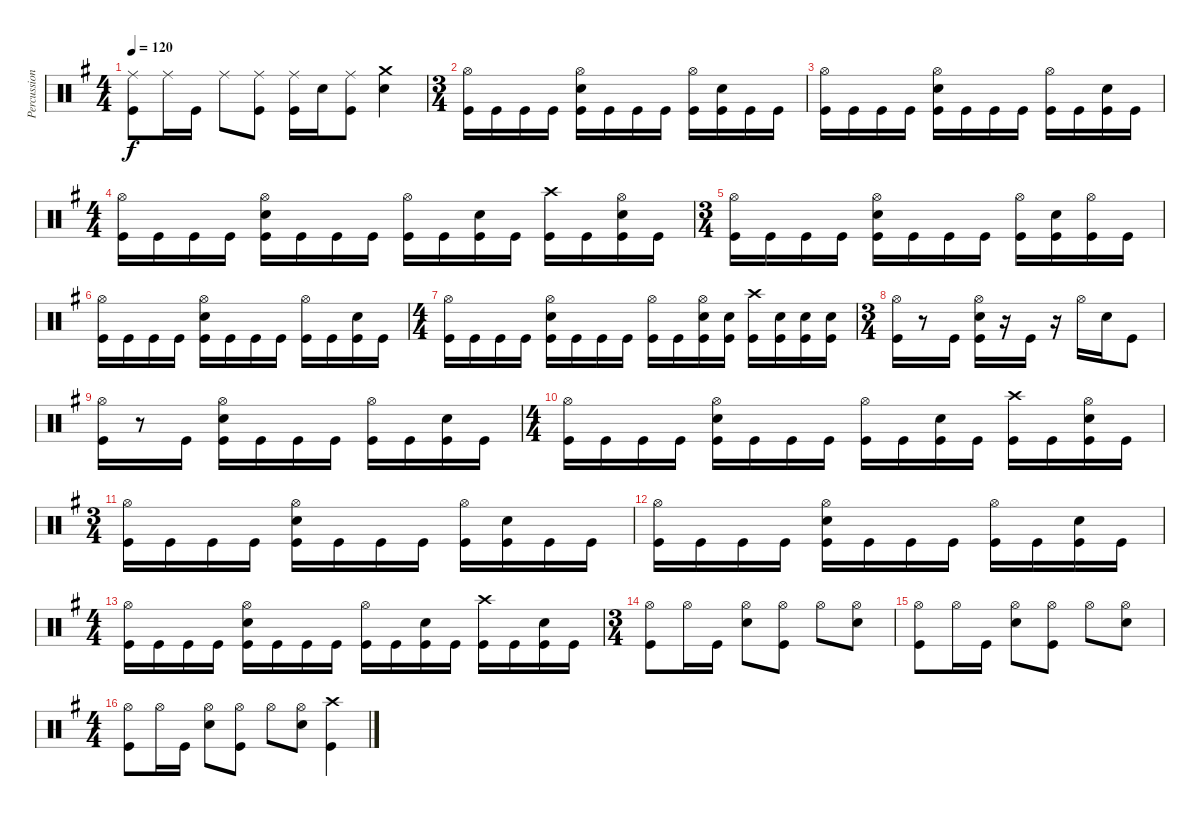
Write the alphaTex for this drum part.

\track ("Percussion" "Percussion") {instrument percussion}
\staff {score}
\articulation defaults
\ts (4 4)
\tempo 120
\clef neutral
\ks g
("Ride (middle)" "Kick (hit)").8{dy f} "Ride (middle)".16 "Kick (hit)".16 "Ride (middle)".8 ("Ride (middle)" "Kick (hit)").8 ("Ride (middle)" "Kick (hit)").16 "Snare (hit) 2".16 ("Ride (middle)" "Kick (hit)").8 ("Crash medium (hit)" "Snare (hit) 2").4 |
\ts (3 4)
("Hi-Hat (open)" "Kick (hit)").16 "Kick (hit)".16 "Kick (hit)".16 "Kick (hit)".16 ("Hi-Hat (open)" "Snare (hit) 2" "Kick (hit)").16 "Kick (hit)".16 "Kick (hit)".16 "Kick (hit)".16 ("Hi-Hat (open)" "Kick (hit)").16 ("Snare (hit) 2" "Kick (hit)").16 "Kick (hit)".16 "Kick (hit)".16 |
("Hi-Hat (open)" "Kick (hit)").16 "Kick (hit)".16 "Kick (hit)".16 "Kick (hit)".16 ("Hi-Hat (open)" "Snare (hit) 2" "Kick (hit)").16 "Kick (hit)".16 "Kick (hit)".16 "Kick (hit)".16 ("Hi-Hat (open)" "Kick (hit)").16 "Kick (hit)".16 ("Snare (hit) 2" "Kick (hit)").16 "Kick (hit)".16 |
\ts (4 4)
("Hi-Hat (open)" "Kick (hit)").16 "Kick (hit)".16 "Kick (hit)".16 "Kick (hit)".16 ("Hi-Hat (open)" "Snare (hit) 2" "Kick (hit)").16 "Kick (hit)".16 "Kick (hit)".16 "Kick (hit)".16 ("Hi-Hat (open)" "Kick (hit)").16 "Kick (hit)".16 ("Snare (hit) 2" "Kick (hit)").16 "Kick (hit)".16 ("Crash high (hit)" "Kick (hit)").16 "Kick (hit)".16 ("Hi-Hat (open)" "Snare (hit) 2" "Kick (hit)").16 "Kick (hit)".16 |
\ts (3 4)
("Hi-Hat (open)" "Kick (hit)").16 "Kick (hit)".16 "Kick (hit)".16 "Kick (hit)".16 ("Hi-Hat (open)" "Snare (hit) 2" "Kick (hit)").16 "Kick (hit)".16 "Kick (hit)".16 "Kick (hit)".16 ("Hi-Hat (open)" "Kick (hit)").16 ("Snare (hit) 2" "Kick (hit)").16 ("Hi-Hat (open)" "Kick (hit)").16 "Kick (hit)".16 |
("Hi-Hat (open)" "Kick (hit)").16 "Kick (hit)".16 "Kick (hit)".16 "Kick (hit)".16 ("Hi-Hat (open)" "Snare (hit) 2" "Kick (hit)").16 "Kick (hit)".16 "Kick (hit)".16 "Kick (hit)".16 ("Hi-Hat (open)" "Kick (hit)").16 "Kick (hit)".16 ("Snare (hit) 2" "Kick (hit)").16 "Kick (hit)".16 |
\ts (4 4)
("Hi-Hat (open)" "Kick (hit)").16 "Kick (hit)".16 "Kick (hit)".16 "Kick (hit)".16 ("Hi-Hat (open)" "Snare (hit) 2" "Kick (hit)").16 "Kick (hit)".16 "Kick (hit)".16 "Kick (hit)".16 ("Hi-Hat (open)" "Kick (hit)").16 "Kick (hit)".16 ("Hi-Hat (open)" "Snare (hit) 2" "Kick (hit)").16 ("Snare (hit) 2" "Kick (hit)").16 ("Crash high (hit)" "Kick (hit)").16 ("Snare (hit) 2" "Kick (hit)").16 ("Snare (hit) 2" "Kick (hit)").16 ("Snare (hit) 2" "Kick (hit)").16 |
\ts (3 4)
("Hi-Hat (open)" "Kick (hit)").16 r.8 "Kick (hit)".16 ("Hi-Hat (open)" "Snare (hit) 2" "Kick (hit)").16 r.16 "Kick (hit)".16 r.16 "Hi-Hat (open)".16 "Snare (hit) 2".16 "Kick (hit)".8 |
("Hi-Hat (open)" "Kick (hit)").16 r.8 "Kick (hit)".16 ("Hi-Hat (open)" "Snare (hit) 2" "Kick (hit)").16 "Kick (hit)".16 "Kick (hit)".16 "Kick (hit)".16 ("Hi-Hat (open)" "Kick (hit)").16 "Kick (hit)".16 ("Snare (hit) 2" "Kick (hit)").16 "Kick (hit)".16 |
\ts (4 4)
("Hi-Hat (open)" "Kick (hit)").16 "Kick (hit)".16 "Kick (hit)".16 "Kick (hit)".16 ("Hi-Hat (open)" "Snare (hit) 2" "Kick (hit)").16 "Kick (hit)".16 "Kick (hit)".16 "Kick (hit)".16 ("Hi-Hat (open)" "Kick (hit)").16 "Kick (hit)".16 ("Snare (hit) 2" "Kick (hit)").16 "Kick (hit)".16 ("Crash high (hit)" "Kick (hit)").16 "Kick (hit)".16 ("Hi-Hat (open)" "Snare (hit) 2" "Kick (hit)").16 "Kick (hit)".16 |
\ts (3 4)
("Hi-Hat (open)" "Kick (hit)").16 "Kick (hit)".16 "Kick (hit)".16 "Kick (hit)".16 ("Hi-Hat (open)" "Snare (hit) 2" "Kick (hit)").16 "Kick (hit)".16 "Kick (hit)".16 "Kick (hit)".16 ("Hi-Hat (open)" "Kick (hit)").16 ("Snare (hit) 2" "Kick (hit)").16 "Kick (hit)".16 "Kick (hit)".16 |
("Hi-Hat (open)" "Kick (hit)").16 "Kick (hit)".16 "Kick (hit)".16 "Kick (hit)".16 ("Hi-Hat (open)" "Snare (hit) 2" "Kick (hit)").16 "Kick (hit)".16 "Kick (hit)".16 "Kick (hit)".16 ("Hi-Hat (open)" "Kick (hit)").16 "Kick (hit)".16 ("Snare (hit) 2" "Kick (hit)").16 "Kick (hit)".16 |
\ts (4 4)
("Hi-Hat (open)" "Kick (hit)").16 "Kick (hit)".16 "Kick (hit)".16 "Kick (hit)".16 ("Hi-Hat (open)" "Snare (hit) 2" "Kick (hit)").16 "Kick (hit)".16 "Kick (hit)".16 "Kick (hit)".16 ("Hi-Hat (open)" "Kick (hit)").16 "Kick (hit)".16 ("Snare (hit) 2" "Kick (hit)").16 "Kick (hit)".16 ("Crash high (hit)" "Kick (hit)").16 "Kick (hit)".16 ("Snare (hit) 2" "Kick (hit)").16 "Kick (hit)".16 |
\ts (3 4)
("Hi-Hat (open)" "Kick (hit)").8 "Hi-Hat (open)".16 "Kick (hit)".16 ("Hi-Hat (open)" "Snare (hit) 2").8 ("Hi-Hat (open)" "Kick (hit)").8 "Hi-Hat (open)".8 ("Hi-Hat (open)" "Snare (hit) 2").8 |
("Hi-Hat (open)" "Kick (hit)").8 "Hi-Hat (open)".16 "Kick (hit)".16 ("Hi-Hat (open)" "Snare (hit) 2").8 ("Hi-Hat (open)" "Kick (hit)").8 "Hi-Hat (open)".8 ("Hi-Hat (open)" "Snare (hit) 2").8 |
\ts (4 4)
("Hi-Hat (open)" "Kick (hit)").8 "Hi-Hat (open)".16 "Kick (hit)".16 ("Hi-Hat (open)" "Snare (hit) 2").8 ("Hi-Hat (open)" "Kick (hit)").8 "Hi-Hat (open)".8 ("Hi-Hat (open)" "Snare (hit) 2").8 ("Crash high (hit)" "Kick (hit)").4
